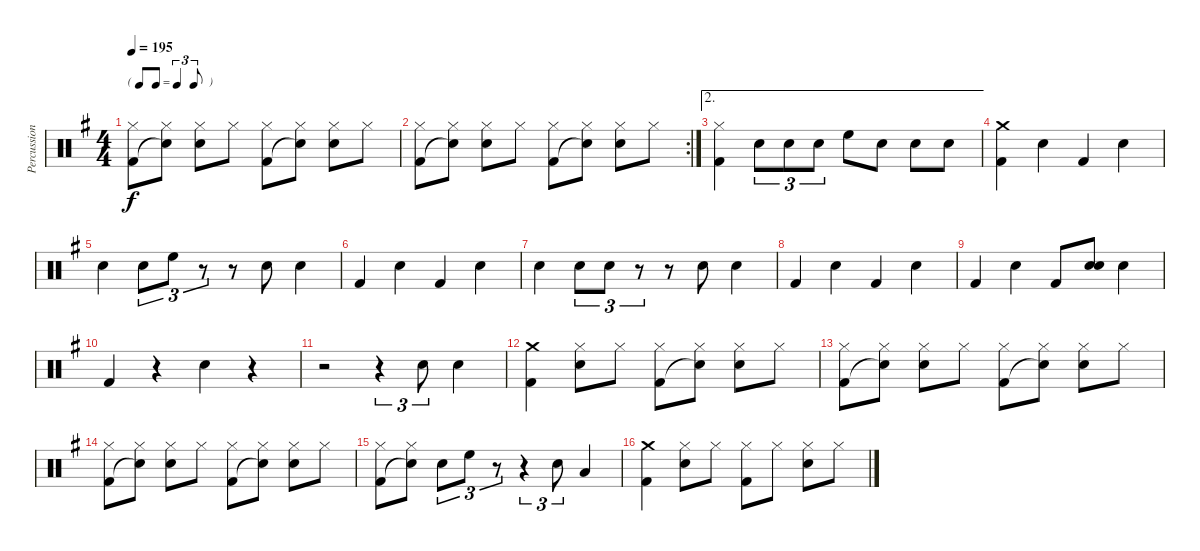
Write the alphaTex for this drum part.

\track ("Percussion" "Percussion") {instrument percussion}
\staff {score}
\articulation defaults
\ts (4 4)
\tf triplet8th
\tempo 195
\clef neutral
\ks g
("Hi-Hat (closed)" "Kick (hit) 2").8{dy f} ("Hi-Hat (closed)" "Snare (hit)"{t}).8 ("Hi-Hat (closed)" "Snare (hit) 2").8 "Hi-Hat (closed)".8 ("Hi-Hat (closed)" "Kick (hit) 2").8 ("Hi-Hat (closed)" "Snare (hit)"{t}).8 ("Hi-Hat (closed)" "Snare (hit) 2").8 "Hi-Hat (closed)".8 |
\rc 2
("Hi-Hat (closed)" "Kick (hit) 2").8 ("Hi-Hat (closed)" "Snare (hit)"{t}).8 ("Hi-Hat (closed)" "Snare (hit) 2").8 "Hi-Hat (closed)".8 ("Hi-Hat (closed)" "Kick (hit) 2").8 ("Hi-Hat (closed)" "Snare (hit)"{t}).8 ("Hi-Hat (closed)" "Snare (hit) 2").8 "Hi-Hat (closed)".8 |
\ae 2
("Hi-Hat (closed)" "Kick (hit) 2").4 "Snare (hit) 2".8{tu (3 2)} "Snare (hit) 2".8{tu (3 2)} "Snare (hit) 2".8{tu (3 2)} "High Floor Tom (hit)".8 "Snare (hit) 2".8 "Snare (hit) 2".8 "Snare (hit) 2".8 |
("Crash medium (hit)" "Kick (hit) 2").4 "Snare (hit) 2".4 "Kick (hit) 2".4 "Snare (hit) 2".4 |
"Snare (hit) 2".4 "Snare (hit) 2".8{tu (3 2)} "High Floor Tom (hit)".8{tu (3 2)} r.8{tu (3 2)} r.8 "Snare (hit) 2".8 "Snare (hit) 2".4 |
"Kick (hit) 2".4 "Snare (hit) 2".4 "Kick (hit) 2".4 "Snare (hit) 2".4 |
"Snare (hit) 2".4 "Snare (hit) 2".8{tu (3 2)} "Snare (hit) 2".8{tu (3 2)} r.8{tu (3 2)} r.8 "Snare (hit) 2".8 "Snare (hit) 2".4 |
"Kick (hit) 2".4 "Snare (hit) 2".4 "Kick (hit) 2".4 "Snare (hit) 2".4 |
"Kick (hit) 2".4 "Snare (hit) 2".4 "Kick (hit) 2".8 ("Snare (hit) 2" "Snare (hit)").8 "Snare (hit) 2".4 |
"Kick (hit) 2".4 r.4 "Snare (hit) 2".4 r.4 |
r.2 r.4{tu (3 2)} "Snare (hit) 2".8{tu (3 2)} "Snare (hit) 2".4 |
("Crash medium (hit)" "Kick (hit) 2").4 ("Hi-Hat (closed)" "Snare (hit) 2").8 "Hi-Hat (closed)".8 ("Hi-Hat (closed)" "Kick (hit) 2").8 ("Hi-Hat (closed)" "Snare (hit)"{t}).8 ("Hi-Hat (closed)" "Snare (hit) 2").8 "Hi-Hat (closed)".8 |
("Hi-Hat (closed)" "Kick (hit) 2").8 ("Hi-Hat (closed)" "Snare (hit)"{t}).8 ("Hi-Hat (closed)" "Snare (hit) 2").8 "Hi-Hat (closed)".8 ("Hi-Hat (closed)" "Kick (hit) 2").8 ("Hi-Hat (closed)" "Snare (hit)"{t}).8 ("Hi-Hat (closed)" "Snare (hit) 2").8 "Hi-Hat (closed)".8 |
("Hi-Hat (closed)" "Kick (hit) 2").8 ("Hi-Hat (closed)" "Snare (hit)"{t}).8 ("Hi-Hat (closed)" "Snare (hit) 2").8 "Hi-Hat (closed)".8 ("Hi-Hat (closed)" "Kick (hit) 2").8 ("Hi-Hat (closed)" "Snare (hit)"{t}).8 ("Hi-Hat (closed)" "Snare (hit) 2").8 "Hi-Hat (closed)".8 |
("Hi-Hat (closed)" "Kick (hit) 2").8 ("Hi-Hat (closed)" "Snare (hit)"{t}).8 "Snare (hit) 2".8{tu (3 2)} "High Floor Tom (hit)".8{tu (3 2)} r.8{tu (3 2)} r.4{tu (3 2)} "Snare (hit) 2".8{tu (3 2)} "Low Tom (hit)".4 |
("Crash medium (hit)" "Kick (hit) 2").4 ("Hi-Hat (closed)" "Snare (hit) 2").8 "Hi-Hat (closed)".8 ("Hi-Hat (closed)" "Kick (hit) 2").8 "Hi-Hat (closed)".8 ("Hi-Hat (closed)" "Snare (hit) 2").8 "Hi-Hat (closed)".8
